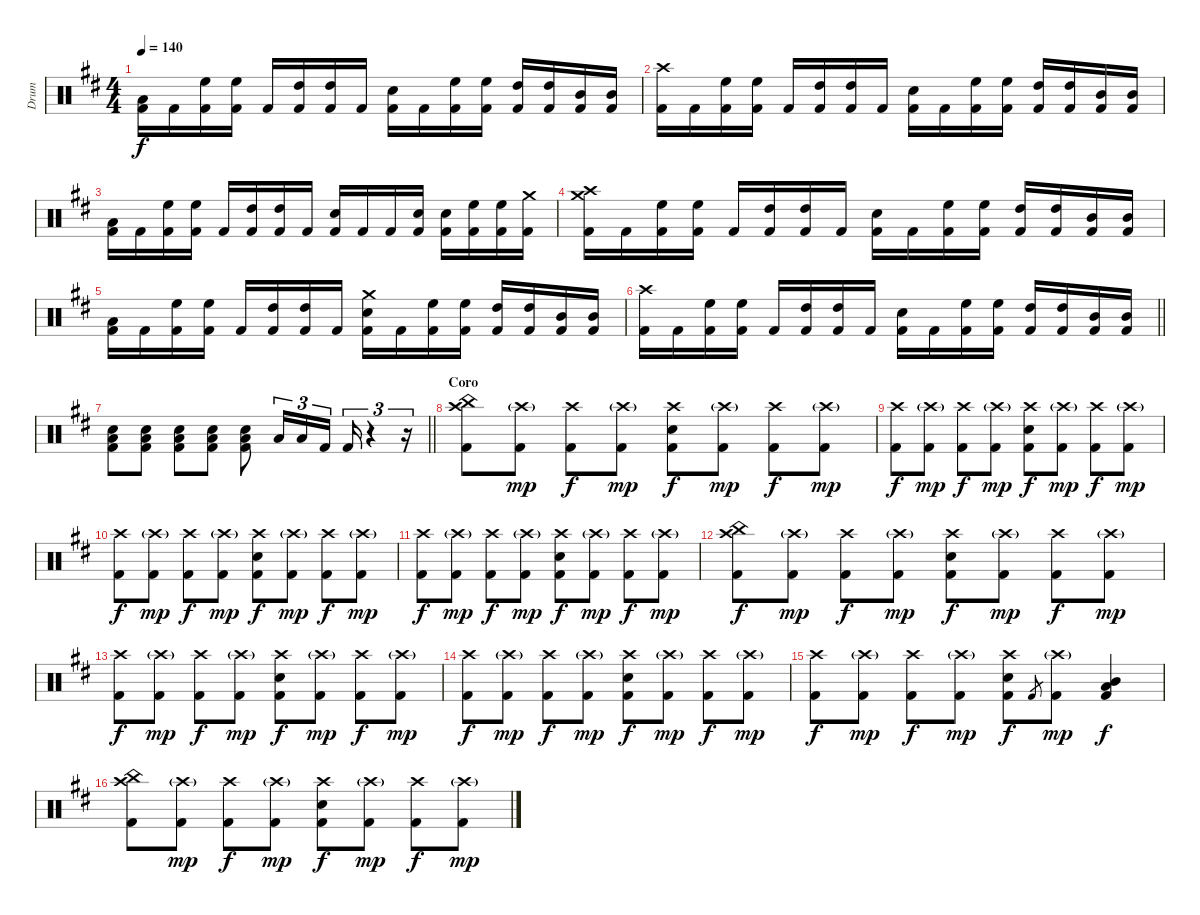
\track ("Drum" "Drum") {instrument percussion}
\staff {score}
\articulation defaults
\ts (4 4)
\tempo 140
\clef neutral
\ks bminor
("Low Tom (hit)" "Kick (hit) 2").16{dy f} "Kick (hit) 2".16 ("High Floor Tom (hit)" "Kick (hit) 2").16 ("High Floor Tom (hit)" "Kick (hit) 2").16 "Kick (hit) 2".16 ("High Tom (hit)" "Kick (hit) 2").16 ("High Tom (hit)" "Kick (hit) 2").16 "Kick (hit) 2".16 ("Snare (hit) 2" "Kick (hit) 2").16 "Kick (hit) 2".16 ("High Floor Tom (hit)" "Kick (hit) 2").16 ("High Floor Tom (hit)" "Kick (hit) 2").16 ("High Tom (hit)" "Kick (hit) 2").16 ("High Tom (hit)" "Kick (hit) 2").16 ("Mid Tom (hit)" "Kick (hit) 2").16 ("Mid Tom (hit)" "Kick (hit) 2").16 |
("Crash high (hit)" "Kick (hit) 2").16 "Kick (hit) 2".16 ("High Floor Tom (hit)" "Kick (hit) 2").16 ("High Floor Tom (hit)" "Kick (hit) 2").16 "Kick (hit) 2".16 ("High Tom (hit)" "Kick (hit) 2").16 ("High Tom (hit)" "Kick (hit) 2").16 "Kick (hit) 2".16 ("Snare (hit) 2" "Kick (hit) 2").16 "Kick (hit) 2".16 ("High Floor Tom (hit)" "Kick (hit) 2").16 ("High Floor Tom (hit)" "Kick (hit) 2").16 ("High Tom (hit)" "Kick (hit) 2").16 ("High Tom (hit)" "Kick (hit) 2").16 ("Mid Tom (hit)" "Kick (hit) 2").16 ("Mid Tom (hit)" "Kick (hit) 2").16 |
("Low Tom (hit)" "Kick (hit) 2").16 "Kick (hit) 2".16 ("High Floor Tom (hit)" "Kick (hit) 2").16 ("High Floor Tom (hit)" "Kick (hit) 2").16 "Kick (hit) 2".16 ("High Tom (hit)" "Kick (hit) 2").16 ("High Tom (hit)" "Kick (hit) 2").16 "Kick (hit) 2".16 ("Snare (hit) 2" "Kick (hit) 2").16 "Kick (hit) 2".16 "Kick (hit) 2".16 ("Snare (hit) 2" "Kick (hit) 2").16 ("Snare (hit) 2" "Kick (hit) 2").16 ("High Floor Tom (hit)" "Kick (hit) 2").16 ("High Floor Tom (hit)" "Kick (hit) 2").16 ("Crash medium (hit)" "Kick (hit) 2").16 |
("Crash medium (hit)" "Crash high (hit)" "Kick (hit) 2").16 "Kick (hit) 2".16 ("High Floor Tom (hit)" "Kick (hit) 2").16 ("High Floor Tom (hit)" "Kick (hit) 2").16 "Kick (hit) 2".16 ("High Tom (hit)" "Kick (hit) 2").16 ("High Tom (hit)" "Kick (hit) 2").16 "Kick (hit) 2".16 ("Snare (hit) 2" "Kick (hit) 2").16 "Kick (hit) 2".16 ("High Floor Tom (hit)" "Kick (hit) 2").16 ("High Floor Tom (hit)" "Kick (hit) 2").16 ("High Tom (hit)" "Kick (hit) 2").16 ("High Tom (hit)" "Kick (hit) 2").16 ("Mid Tom (hit)" "Kick (hit) 2").16 ("Mid Tom (hit)" "Kick (hit) 2").16 |
("Low Tom (hit)" "Kick (hit) 2").16 "Kick (hit) 2".16 ("High Floor Tom (hit)" "Kick (hit) 2").16 ("High Floor Tom (hit)" "Kick (hit) 2").16 "Kick (hit) 2".16 ("High Tom (hit)" "Kick (hit) 2").16 ("High Tom (hit)" "Kick (hit) 2").16 "Kick (hit) 2".16 ("Crash medium (hit)" "Snare (hit) 2" "Kick (hit) 2").16 "Kick (hit) 2".16 ("High Floor Tom (hit)" "Kick (hit) 2").16 ("High Floor Tom (hit)" "Kick (hit) 2").16 ("High Tom (hit)" "Kick (hit) 2").16 ("High Tom (hit)" "Kick (hit) 2").16 ("Mid Tom (hit)" "Kick (hit) 2").16 ("Mid Tom (hit)" "Kick (hit) 2").16 |
\barLineRight lightlight
("Crash high (hit)" "Kick (hit) 2").16 "Kick (hit) 2".16 ("High Floor Tom (hit)" "Kick (hit) 2").16 ("High Floor Tom (hit)" "Kick (hit) 2").16 "Kick (hit) 2".16 ("High Tom (hit)" "Kick (hit) 2").16 ("High Tom (hit)" "Kick (hit) 2").16 "Kick (hit) 2".16 ("Snare (hit) 2" "Kick (hit) 2").16 "Kick (hit) 2".16 ("High Floor Tom (hit)" "Kick (hit) 2").16 ("High Floor Tom (hit)" "Kick (hit) 2").16 ("High Tom (hit)" "Kick (hit) 2").16 ("High Tom (hit)" "Kick (hit) 2").16 ("Mid Tom (hit)" "Kick (hit) 2").16 ("Mid Tom (hit)" "Kick (hit) 2").16 |
\barLineRight lightlight
("Low Tom (hit)" "Snare (hit) 2" "Kick (hit) 2").8 ("Low Tom (hit)" "Snare (hit) 2" "Kick (hit) 2").8 ("Low Tom (hit)" "Snare (hit) 2" "Kick (hit) 2").8 ("Low Tom (hit)" "Snare (hit) 2" "Kick (hit) 2").8 ("Low Tom (hit)" "Snare (hit) 2" "Kick (hit) 2").8 "Low Tom (hit)".16{tu (3 2)} "Low Tom (hit)".16{tu (3 2)} "Kick (hit) 2".16{tu (3 2)} "Kick (hit) 2".16{tu (3 2)} r.4{tu (3 2)} r.16{tu (3 2)} |
\section ("" "Coro")
("Crash high (hit)" "China (hit)" "Kick (hit) 2").8 ("Crash high (hit)"{g} "Kick (hit) 2").8{dy mp} ("Crash high (hit)" "Kick (hit) 2").8{dy f} ("Crash high (hit)"{g} "Kick (hit) 2").8{dy mp} ("Crash high (hit)" "Snare (hit) 2" "Kick (hit) 2").8{dy f} ("Crash high (hit)"{g} "Kick (hit) 2").8{dy mp} ("Crash high (hit)" "Kick (hit) 2").8{dy f} ("Crash high (hit)"{g} "Kick (hit) 2").8{dy mp} |
("Crash high (hit)" "Kick (hit) 2").8{dy f} ("Crash high (hit)"{g} "Kick (hit) 2").8{dy mp} ("Crash high (hit)" "Kick (hit) 2").8{dy f} ("Crash high (hit)"{g} "Kick (hit) 2").8{dy mp} ("Crash high (hit)" "Snare (hit) 2" "Kick (hit) 2").8{dy f} ("Crash high (hit)"{g} "Kick (hit) 2").8{dy mp} ("Crash high (hit)" "Kick (hit) 2").8{dy f} ("Crash high (hit)"{g} "Kick (hit) 2").8{dy mp} |
("Crash high (hit)" "Kick (hit) 2").8{dy f} ("Crash high (hit)"{g} "Kick (hit) 2").8{dy mp} ("Crash high (hit)" "Kick (hit) 2").8{dy f} ("Crash high (hit)"{g} "Kick (hit) 2").8{dy mp} ("Crash high (hit)" "Snare (hit) 2" "Kick (hit) 2").8{dy f} ("Crash high (hit)"{g} "Kick (hit) 2").8{dy mp} ("Crash high (hit)" "Kick (hit) 2").8{dy f} ("Crash high (hit)"{g} "Kick (hit) 2").8{dy mp} |
("Crash high (hit)" "Kick (hit) 2").8{dy f} ("Crash high (hit)"{g} "Kick (hit) 2").8{dy mp} ("Crash high (hit)" "Kick (hit) 2").8{dy f} ("Crash high (hit)"{g} "Kick (hit) 2").8{dy mp} ("Crash high (hit)" "Snare (hit) 2" "Kick (hit) 2").8{dy f} ("Crash high (hit)"{g} "Kick (hit) 2").8{dy mp} ("Crash high (hit)" "Kick (hit) 2").8{dy f} ("Crash high (hit)"{g} "Kick (hit) 2").8{dy mp} |
("Crash high (hit)" "China (hit)" "Kick (hit) 2").8{dy f} ("Crash high (hit)"{g} "Kick (hit) 2").8{dy mp} ("Crash high (hit)" "Kick (hit) 2").8{dy f} ("Crash high (hit)"{g} "Kick (hit) 2").8{dy mp} ("Crash high (hit)" "Snare (hit) 2" "Kick (hit) 2").8{dy f} ("Crash high (hit)"{g} "Kick (hit) 2").8{dy mp} ("Crash high (hit)" "Kick (hit) 2").8{dy f} ("Crash high (hit)"{g} "Kick (hit) 2").8{dy mp} |
("Crash high (hit)" "Kick (hit) 2").8{dy f} ("Crash high (hit)"{g} "Kick (hit) 2").8{dy mp} ("Crash high (hit)" "Kick (hit) 2").8{dy f} ("Crash high (hit)"{g} "Kick (hit) 2").8{dy mp} ("Crash high (hit)" "Snare (hit) 2" "Kick (hit) 2").8{dy f} ("Crash high (hit)"{g} "Kick (hit) 2").8{dy mp} ("Crash high (hit)" "Kick (hit) 2").8{dy f} ("Crash high (hit)"{g} "Kick (hit) 2").8{dy mp} |
("Crash high (hit)" "Kick (hit) 2").8{dy f} ("Crash high (hit)"{g} "Kick (hit) 2").8{dy mp} ("Crash high (hit)" "Kick (hit) 2").8{dy f} ("Crash high (hit)"{g} "Kick (hit) 2").8{dy mp} ("Crash high (hit)" "Snare (hit) 2" "Kick (hit) 2").8{dy f} ("Crash high (hit)"{g} "Kick (hit) 2").8{dy mp} ("Crash high (hit)" "Kick (hit) 2").8{dy f} ("Crash high (hit)"{g} "Kick (hit) 2").8{dy mp} |
("Crash high (hit)" "Kick (hit) 2").8{dy f} ("Crash high (hit)"{g} "Kick (hit) 2").8{dy mp} ("Crash high (hit)" "Kick (hit) 2").8{dy f} ("Crash high (hit)"{g} "Kick (hit) 2").8{dy mp} ("Crash high (hit)" "Snare (hit) 2" "Kick (hit) 2").8{dy f} "Kick (hit) 2".8{gr} ("Crash high (hit)"{g} "Kick (hit) 2").8{dy mp} ("Mid Tom (hit)" "Low Tom (hit)" "Kick (hit) 2").4{dy f} |
("Crash high (hit)" "China (hit)" "Kick (hit) 2").8 ("Crash high (hit)"{g} "Kick (hit) 2").8{dy mp} ("Crash high (hit)" "Kick (hit) 2").8{dy f} ("Crash high (hit)"{g} "Kick (hit) 2").8{dy mp} ("Crash high (hit)" "Snare (hit) 2" "Kick (hit) 2").8{dy f} ("Crash high (hit)"{g} "Kick (hit) 2").8{dy mp} ("Crash high (hit)" "Kick (hit) 2").8{dy f} ("Crash high (hit)"{g} "Kick (hit) 2").8{dy mp}
